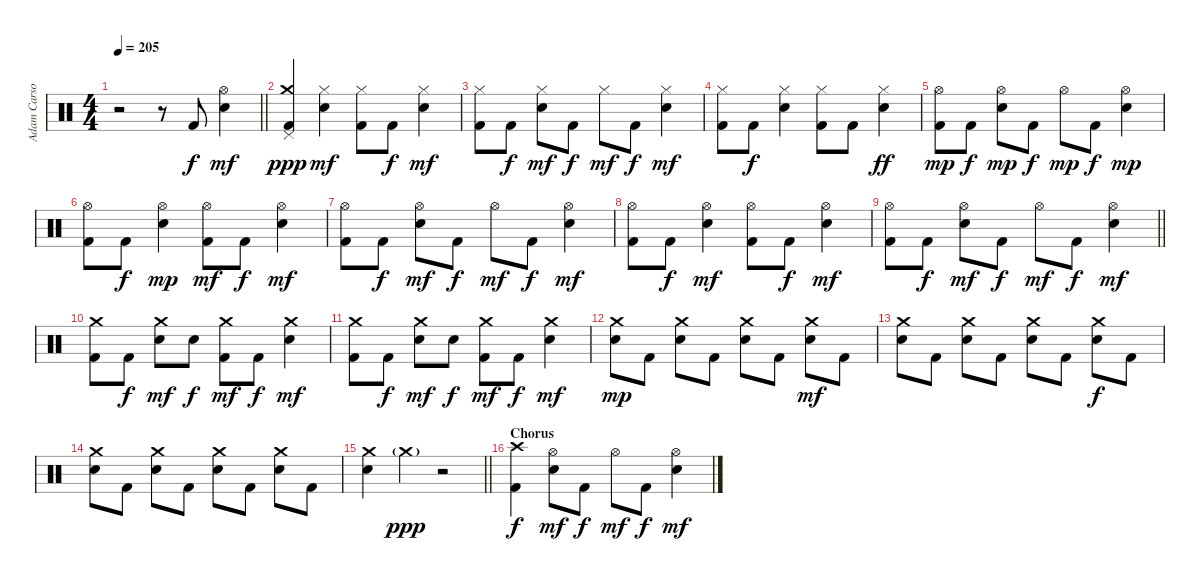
\track ("Adam Carson" "Adam Carso") {instrument percussion}
\staff {score}
\articulation defaults
\ts (4 4)
\tempo 205
\clef neutral
\barLineRight lightlight
\ks aminor
r.2{dy f} r.8 "Kick (hit) 2".8 ("Hi-Hat (open)" "Snare (hit) 2").4{dy mf} |
("Crash medium (hit)" "Pedal Hi-Hat (hit)" "Kick (hit) 2").4{dy ppp} ("Hi-Hat (closed)" "Snare (hit) 2").4{dy mf} ("Hi-Hat (closed)" "Kick (hit) 2").8 "Kick (hit) 2".8{dy f} ("Hi-Hat (closed)" "Snare (hit) 2").4{dy mf} |
("Hi-Hat (closed)" "Kick (hit) 2").8 "Kick (hit) 2".8{dy f} ("Hi-Hat (closed)" "Snare (hit) 2").8{dy mf} "Kick (hit) 2".8{dy f} "Hi-Hat (closed)".8{dy mf} "Kick (hit) 2".8{dy f} ("Hi-Hat (closed)" "Snare (hit) 2").4{dy mf} |
("Hi-Hat (closed)" "Kick (hit) 2").8 "Kick (hit) 2".8{dy f} ("Hi-Hat (closed)" "Snare (hit) 2").4 ("Hi-Hat (closed)" "Kick (hit) 2").8 "Kick (hit) 2".8 ("Hi-Hat (closed)" "Snare (hit) 2").4{dy ff} |
("Hi-Hat (open)" "Kick (hit) 2").8{dy mp} "Kick (hit) 2".8{dy f} ("Hi-Hat (open)" "Snare (hit) 2").8{dy mp} "Kick (hit) 2".8{dy f} "Hi-Hat (open)".8{dy mp} "Kick (hit) 2".8{dy f} ("Hi-Hat (open)" "Snare (hit) 2").4{dy mp} |
("Hi-Hat (open)" "Kick (hit) 2").8 "Kick (hit) 2".8{dy f} ("Hi-Hat (open)" "Snare (hit) 2").4{dy mp} ("Hi-Hat (open)" "Kick (hit) 2").8{dy mf} "Kick (hit) 2".8{dy f} ("Hi-Hat (open)" "Snare (hit) 2").4{dy mf} |
("Hi-Hat (open)" "Kick (hit) 2").8 "Kick (hit) 2".8{dy f} ("Hi-Hat (open)" "Snare (hit) 2").8{dy mf} "Kick (hit) 2".8{dy f} "Hi-Hat (open)".8{dy mf} "Kick (hit) 2".8{dy f} ("Hi-Hat (open)" "Snare (hit) 2").4{dy mf} |
("Hi-Hat (open)" "Kick (hit) 2").8 "Kick (hit) 2".8{dy f} ("Hi-Hat (open)" "Snare (hit) 2").4{dy mf} ("Hi-Hat (open)" "Kick (hit) 2").8 "Kick (hit) 2".8{dy f} ("Hi-Hat (open)" "Snare (hit) 2").4{dy mf} |
\barLineRight lightlight
("Hi-Hat (open)" "Kick (hit) 2").8 "Kick (hit) 2".8{dy f} ("Hi-Hat (open)" "Snare (hit) 2").8{dy mf} "Kick (hit) 2".8{dy f} "Hi-Hat (open)".8{dy mf} "Kick (hit) 2".8{dy f} ("Hi-Hat (open)" "Snare (hit) 2").4{dy mf} |
("Crash medium (hit)" "Kick (hit) 2").8 "Kick (hit) 2".8{dy f} ("Crash medium (hit)" "Snare (hit) 2").8{dy mf} "Snare (hit) 2".8{dy f} ("Crash medium (hit)" "Kick (hit) 2").8{dy mf} "Kick (hit) 2".8{dy f} ("Crash medium (hit)" "Snare (hit) 2").4{dy mf} |
("Crash medium (hit)" "Kick (hit) 2").8 "Kick (hit) 2".8{dy f} ("Crash medium (hit)" "Snare (hit) 2").8{dy mf} "Snare (hit) 2".8{dy f} ("Crash medium (hit)" "Kick (hit) 2").8{dy mf} "Kick (hit) 2".8{dy f} ("Crash medium (hit)" "Snare (hit) 2").4{dy mf} |
("Crash medium (hit)" "Snare (hit) 2").8{dy mp} "Kick (hit) 2".8 ("Crash medium (hit)" "Snare (hit) 2").8 "Kick (hit) 2".8 ("Crash medium (hit)" "Snare (hit) 2").8 "Kick (hit) 2".8 ("Crash medium (hit)" "Snare (hit) 2").8{dy mf} "Kick (hit) 2".8 |
("Crash medium (hit)" "Snare (hit) 2").8 "Kick (hit) 2".8 ("Crash medium (hit)" "Snare (hit) 2").8 "Kick (hit) 2".8 ("Crash medium (hit)" "Snare (hit) 2").8 "Kick (hit) 2".8 ("Crash medium (hit)" "Snare (hit) 2").8{dy f} "Kick (hit) 2".8 |
("Crash medium (hit)" "Snare (hit) 2").8 "Kick (hit) 2".8 ("Crash medium (hit)" "Snare (hit) 2").8 "Kick (hit) 2".8 ("Crash medium (hit)" "Snare (hit) 2").8 "Kick (hit) 2".8 ("Crash medium (hit)" "Snare (hit) 2").8 "Kick (hit) 2".8 |
\barLineRight lightlight
("Crash medium (hit)" "Snare (hit) 2").4 "Crash medium (hit)"{g}.4{dy ppp} r.2 |
\section ("" "Chorus")
("Crash high (hit)" "Kick (hit) 2").4{dy f} ("Hi-Hat (open)" "Snare (hit) 2").8{dy mf} "Kick (hit) 2".8{dy f} "Hi-Hat (open)".8{dy mf} "Kick (hit) 2".8{dy f} ("Hi-Hat (open)" "Snare (hit) 2").4{dy mf}
